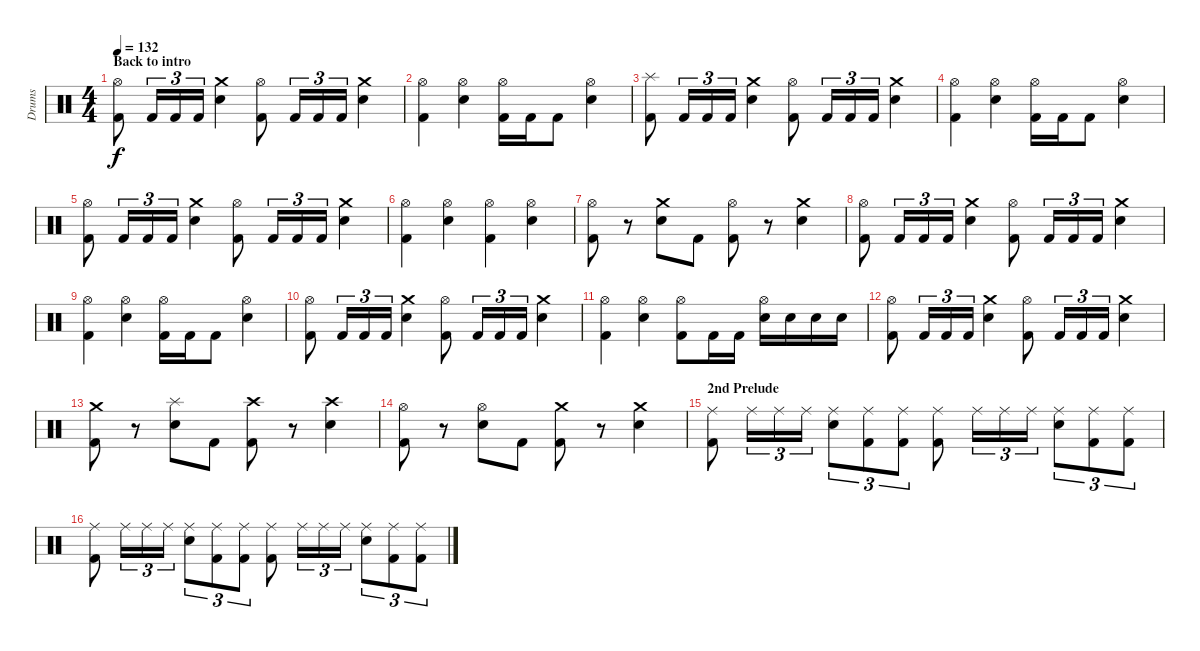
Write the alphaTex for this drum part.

\track ("Drums" "Drums") {instrument percussion}
\staff {score}
\articulation defaults
\ts (4 4)
\section ("" "Back to intro")
\tempo 132
\clef neutral
\ks c
("Hi-Hat (open)" "Kick (hit) 2").8{dy f} "Kick (hit) 2".16{tu (3 2)} "Kick (hit) 2".16{tu (3 2)} "Kick (hit) 2".16{tu (3 2)} ("Crash medium (hit)" "Electric Snare (hit)").4 ("Hi-Hat (open)" "Kick (hit) 2").8 "Kick (hit) 2".16{tu (3 2)} "Kick (hit) 2".16{tu (3 2)} "Kick (hit) 2".16{tu (3 2)} ("Crash medium (hit)" "Electric Snare (hit)").4 |
("Hi-Hat (open)" "Kick (hit) 2").4 ("Hi-Hat (open)" "Electric Snare (hit)").4 ("Hi-Hat (open)" "Kick (hit) 2").16 "Kick (hit) 2".16 "Kick (hit) 2".8 ("Hi-Hat (open)" "Electric Snare (hit)").4 |
("Splash (hit)" "Kick (hit) 2").8 "Kick (hit) 2".16{tu (3 2)} "Kick (hit) 2".16{tu (3 2)} "Kick (hit) 2".16{tu (3 2)} ("Crash medium (hit)" "Electric Snare (hit)").4 ("Hi-Hat (open)" "Kick (hit) 2").8 "Kick (hit) 2".16{tu (3 2)} "Kick (hit) 2".16{tu (3 2)} "Kick (hit) 2".16{tu (3 2)} ("Crash medium (hit)" "Electric Snare (hit)").4 |
("Hi-Hat (open)" "Kick (hit) 2").4 ("Hi-Hat (open)" "Electric Snare (hit)").4 ("Hi-Hat (open)" "Kick (hit) 2").16 "Kick (hit) 2".16 "Kick (hit) 2".8 ("Hi-Hat (open)" "Electric Snare (hit)").4 |
("Hi-Hat (open)" "Kick (hit) 2").8 "Kick (hit) 2".16{tu (3 2)} "Kick (hit) 2".16{tu (3 2)} "Kick (hit) 2".16{tu (3 2)} ("Crash medium (hit)" "Electric Snare (hit)").4 ("Hi-Hat (open)" "Kick (hit) 2").8 "Kick (hit) 2".16{tu (3 2)} "Kick (hit) 2".16{tu (3 2)} "Kick (hit) 2".16{tu (3 2)} ("Crash medium (hit)" "Electric Snare (hit)").4 |
("Hi-Hat (open)" "Kick (hit) 2").4 ("Hi-Hat (open)" "Electric Snare (hit)").4 ("Hi-Hat (open)" "Kick (hit) 2").4 ("Hi-Hat (open)" "Electric Snare (hit)").4 |
("Hi-Hat (open)" "Kick (hit) 2").8 r.8 ("Crash medium (hit)" "Electric Snare (hit)").8 "Kick (hit) 2".8 ("Hi-Hat (open)" "Kick (hit) 2").8 r.8 ("Crash medium (hit)" "Electric Snare (hit)").4 |
("Hi-Hat (open)" "Kick (hit) 2").8 "Kick (hit) 2".16{tu (3 2)} "Kick (hit) 2".16{tu (3 2)} "Kick (hit) 2".16{tu (3 2)} ("Crash medium (hit)" "Electric Snare (hit)").4 ("Hi-Hat (open)" "Kick (hit) 2").8 "Kick (hit) 2".16{tu (3 2)} "Kick (hit) 2".16{tu (3 2)} "Kick (hit) 2".16{tu (3 2)} ("Crash medium (hit)" "Electric Snare (hit)").4 |
("Hi-Hat (open)" "Kick (hit) 2").4 ("Hi-Hat (open)" "Electric Snare (hit)").4 ("Hi-Hat (open)" "Kick (hit) 2").16 "Kick (hit) 2".16 "Kick (hit) 2".8 ("Hi-Hat (open)" "Electric Snare (hit)").4 |
("Hi-Hat (open)" "Kick (hit) 2").8 "Kick (hit) 2".16{tu (3 2)} "Kick (hit) 2".16{tu (3 2)} "Kick (hit) 2".16{tu (3 2)} ("Crash medium (hit)" "Electric Snare (hit)").4 ("Hi-Hat (open)" "Kick (hit) 2").8 "Kick (hit) 2".16{tu (3 2)} "Kick (hit) 2".16{tu (3 2)} "Kick (hit) 2".16{tu (3 2)} ("Crash medium (hit)" "Electric Snare (hit)").4 |
("Hi-Hat (open)" "Kick (hit) 2").4 ("Hi-Hat (open)" "Electric Snare (hit)").4 ("Hi-Hat (open)" "Kick (hit) 2").8 "Kick (hit) 2".16 "Kick (hit) 2".16 ("Hi-Hat (open)" "Electric Snare (hit)").16 "Electric Snare (hit)".16 "Electric Snare (hit)".16 "Electric Snare (hit)".16 |
("Hi-Hat (open)" "Kick (hit) 2").8 "Kick (hit) 2".16{tu (3 2)} "Kick (hit) 2".16{tu (3 2)} "Kick (hit) 2".16{tu (3 2)} ("Crash medium (hit)" "Electric Snare (hit)").4 ("Hi-Hat (open)" "Kick (hit) 2").8 "Kick (hit) 2".16{tu (3 2)} "Kick (hit) 2".16{tu (3 2)} "Kick (hit) 2".16{tu (3 2)} ("Crash medium (hit)" "Electric Snare (hit)").4 |
("Crash medium (hit)" "Kick (hit) 2").8 r.8 ("Splash (hit)" "Electric Snare (hit)").8 "Kick (hit) 2".8 ("Crash high (hit)" "Kick (hit) 2").8 r.8 ("Crash high (hit)" "Electric Snare (hit)").4 |
("Hi-Hat (open)" "Kick (hit) 2").8 r.8 ("Hi-Hat (open)" "Electric Snare (hit)").8 "Kick (hit) 2".8 ("Crash medium (hit)" "Kick (hit) 2").8 r.8 ("Crash medium (hit)" "Electric Snare (hit)").4 |
\section ("" "2nd Prelude")
("Ride (middle)" "Kick (hit) 2").8 "Ride (middle)".16{tu (3 2)} "Ride (middle)".16{tu (3 2)} "Ride (middle)".16{tu (3 2)} ("Ride (middle)" "Electric Snare (hit)").8{tu (3 2)} ("Ride (middle)" "Kick (hit) 2").8{tu (3 2)} ("Ride (middle)" "Kick (hit) 2").8{tu (3 2)} ("Ride (middle)" "Kick (hit) 2").8 "Ride (middle)".16{tu (3 2)} "Ride (middle)".16{tu (3 2)} "Ride (middle)".16{tu (3 2)} ("Ride (middle)" "Electric Snare (hit)").8{tu (3 2)} ("Ride (middle)" "Kick (hit) 2").8{tu (3 2)} ("Ride (middle)" "Kick (hit) 2").8{tu (3 2)} |
("Ride (middle)" "Kick (hit) 2").8 "Ride (middle)".16{tu (3 2)} "Ride (middle)".16{tu (3 2)} "Ride (middle)".16{tu (3 2)} ("Ride (middle)" "Electric Snare (hit)").8{tu (3 2)} ("Ride (middle)" "Kick (hit) 2").8{tu (3 2)} ("Ride (middle)" "Kick (hit) 2").8{tu (3 2)} ("Ride (middle)" "Kick (hit) 2").8 "Ride (middle)".16{tu (3 2)} "Ride (middle)".16{tu (3 2)} "Ride (middle)".16{tu (3 2)} ("Ride (middle)" "Electric Snare (hit)").8{tu (3 2)} ("Ride (middle)" "Kick (hit) 2").8{tu (3 2)} ("Ride (middle)" "Kick (hit) 2").8{tu (3 2)}
